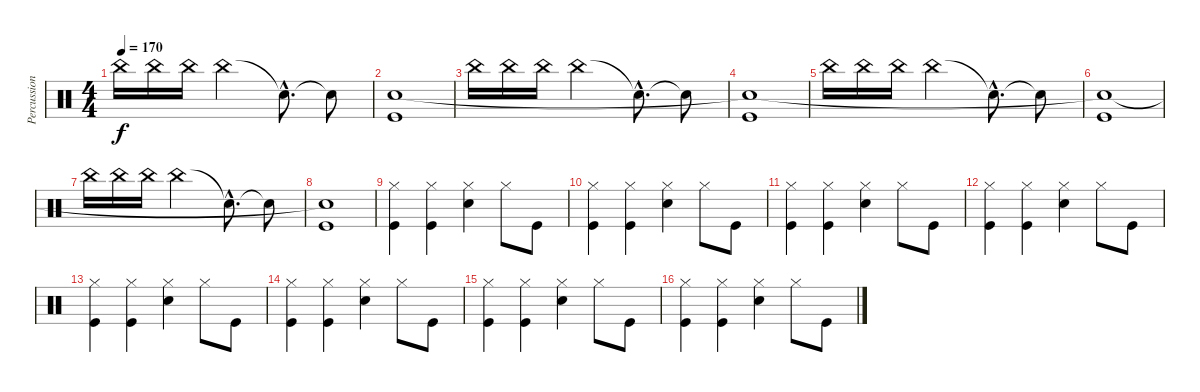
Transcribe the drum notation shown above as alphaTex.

\track ("Percussion" "Percussion") {instrument percussion}
\staff {score}
\articulation defaults
\ts (4 4)
\tempo 170
\clef neutral
\ks c "China (hit)".16{dy f} "China (hit)".16 "China (hit)".16 "China (hit)".2 "Snare (hit)"{hac t}.8{d} "Snare (hit)"{t}.8
|
("Kick (hit)" "Snare (hit)"{t}).1 |
"China (hit)".16 "China (hit)".16 "China (hit)".16 "China (hit)".2 "Snare (hit)"{hac t}.8{d} "Snare (hit)"{t}.8 |
("Kick (hit)" "Snare (hit)"{t}).1 |
"China (hit)".16 "China (hit)".16 "China (hit)".16 "China (hit)".2 "Snare (hit)"{hac t}.8{d} "Snare (hit)"{t}.8 |
("Kick (hit)" "Snare (hit)"{t}).1 |
"China (hit)".16 "China (hit)".16 "China (hit)".16 "China (hit)".2 "Snare (hit)"{hac t}.8{d} "Snare (hit)"{t}.8 |
("Kick (hit)" "Snare (hit)"{t}).1 |
("Hi-Hat (closed)" "Kick (hit)").4 ("Hi-Hat (closed)" "Kick (hit)").4 ("Hi-Hat (closed)" "Snare (hit) 2").4 "Hi-Hat (closed)".8 "Kick (hit)".8 |
("Hi-Hat (closed)" "Kick (hit)").4 ("Hi-Hat (closed)" "Kick (hit)").4 ("Hi-Hat (closed)" "Snare (hit) 2").4 "Hi-Hat (closed)".8 "Kick (hit)".8 |
("Hi-Hat (closed)" "Kick (hit)").4 ("Hi-Hat (closed)" "Kick (hit)").4 ("Hi-Hat (closed)" "Snare (hit) 2").4 "Hi-Hat (closed)".8 "Kick (hit)".8 |
("Hi-Hat (closed)" "Kick (hit)").4 ("Hi-Hat (closed)" "Kick (hit)").4 ("Hi-Hat (closed)" "Snare (hit) 2").4 "Hi-Hat (closed)".8 "Kick (hit)".8 |
("Hi-Hat (closed)" "Kick (hit)").4 ("Hi-Hat (closed)" "Kick (hit)").4 ("Hi-Hat (closed)" "Snare (hit) 2").4 "Hi-Hat (closed)".8 "Kick (hit)".8 |
("Hi-Hat (closed)" "Kick (hit)").4 ("Hi-Hat (closed)" "Kick (hit)").4 ("Hi-Hat (closed)" "Snare (hit) 2").4 "Hi-Hat (closed)".8 "Kick (hit)".8 |
("Hi-Hat (closed)" "Kick (hit)").4 ("Hi-Hat (closed)" "Kick (hit)").4 ("Hi-Hat (closed)" "Snare (hit) 2").4 "Hi-Hat (closed)".8 "Kick (hit)".8 |
("Hi-Hat (closed)" "Kick (hit)").4 ("Hi-Hat (closed)" "Kick (hit)").4 ("Hi-Hat (closed)" "Snare (hit) 2").4 "Hi-Hat (closed)".8 "Kick (hit)".8
